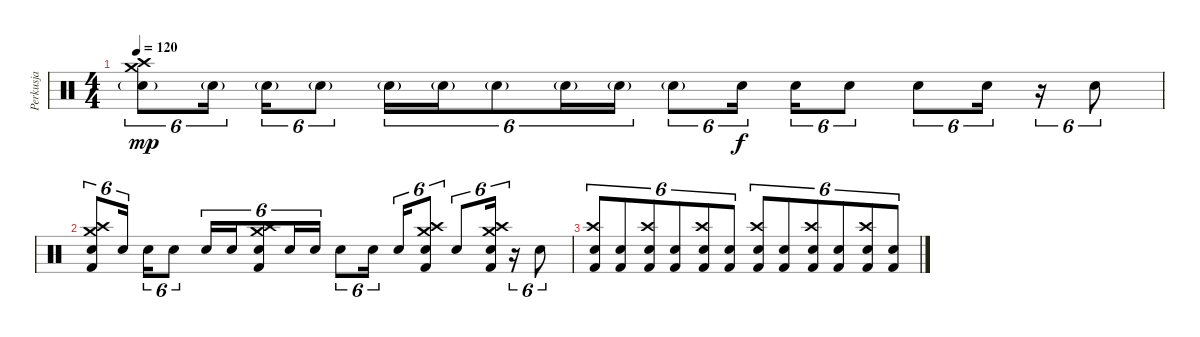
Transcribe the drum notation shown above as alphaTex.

\track ("Perkusja" "Perkusja") {instrument percussion}
\staff {score}
\articulation defaults
\ts (4 4)
\tempo 120
\clef neutral
\ks c
("Electric Snare (hit)"{g} "Crash high (hit)" "Crash medium (hit)").8{tu (6 4) dy mp} "Electric Snare (hit)"{g}.16{tu (6 4) beam splitsecondary} "Electric Snare (hit)"{g}.16{tu (6 4)} "Electric Snare (hit)"{g}.8{tu (6 4)} "Electric Snare (hit)"{g}.16{tu (6 4)} "Electric Snare (hit)"{g}.16{tu (6 4)} "Electric Snare (hit)"{g}.8{tu (6 4)} "Electric Snare (hit)"{g}.16{tu (6 4)} "Electric Snare (hit)"{g}.16{tu (6 4)} "Electric Snare (hit)"{g}.8{tu (6 4)} "Electric Snare (hit)".16{tu (6 4) dy f beam splitsecondary} "Electric Snare (hit)".16{tu (6 4)} "Electric Snare (hit)".8{tu (6 4)} "Electric Snare (hit)".8{tu (6 4)} "Electric Snare (hit)".16{tu (6 4)} r.16{tu (6 4)} "Electric Snare (hit)".8{tu (6 4)} |
("Electric Snare (hit)" "Crash high (hit)" "Crash medium (hit)" "Kick (hit) 2").8{tu (6 4)} "Electric Snare (hit)".16{tu (6 4) beam splitsecondary} "Electric Snare (hit)".16{tu (6 4)} "Electric Snare (hit)".8{tu (6 4)} "Electric Snare (hit)".16{tu (6 4)} "Electric Snare (hit)".16{tu (6 4)} ("Electric Snare (hit)" "Crash high (hit)" "Crash medium (hit)" "Kick (hit) 2").8{tu (6 4)} "Electric Snare (hit)".16{tu (6 4)} "Electric Snare (hit)".16{tu (6 4)} "Electric Snare (hit)".8{tu (6 4)} "Electric Snare (hit)".16{tu (6 4) beam splitsecondary} "Electric Snare (hit)".16{tu (6 4)} ("Electric Snare (hit)" "Crash high (hit)" "Crash medium (hit)" "Kick (hit) 2").8{tu (6 4)} "Electric Snare (hit)".8{tu (6 4)} ("Electric Snare (hit)" "Crash high (hit)" "Crash medium (hit)" "Kick (hit) 2").16{tu (6 4)} r.16{tu (6 4)} "Electric Snare (hit)".8{tu (6 4)} |
("Electric Snare (hit)" "Crash high (hit)" "Kick (hit) 2").8{tu (6 4)} ("Electric Snare (hit)" "Kick (hit) 2").8{tu (6 4)} ("Electric Snare (hit)" "Crash high (hit)" "Kick (hit) 2").8{tu (6 4)} ("Electric Snare (hit)" "Kick (hit) 2").8{tu (6 4)} ("Electric Snare (hit)" "Crash high (hit)" "Kick (hit) 2").8{tu (6 4)} ("Electric Snare (hit)" "Kick (hit) 2").8{tu (6 4)} ("Electric Snare (hit)" "Crash high (hit)" "Kick (hit) 2").8{tu (6 4)} ("Electric Snare (hit)" "Kick (hit) 2").8{tu (6 4)} ("Electric Snare (hit)" "Crash high (hit)" "Kick (hit) 2").8{tu (6 4)} ("Electric Snare (hit)" "Kick (hit) 2").8{tu (6 4)} ("Electric Snare (hit)" "Crash high (hit)" "Kick (hit) 2").8{tu (6 4)} ("Electric Snare (hit)" "Kick (hit) 2").8{tu (6 4)}
